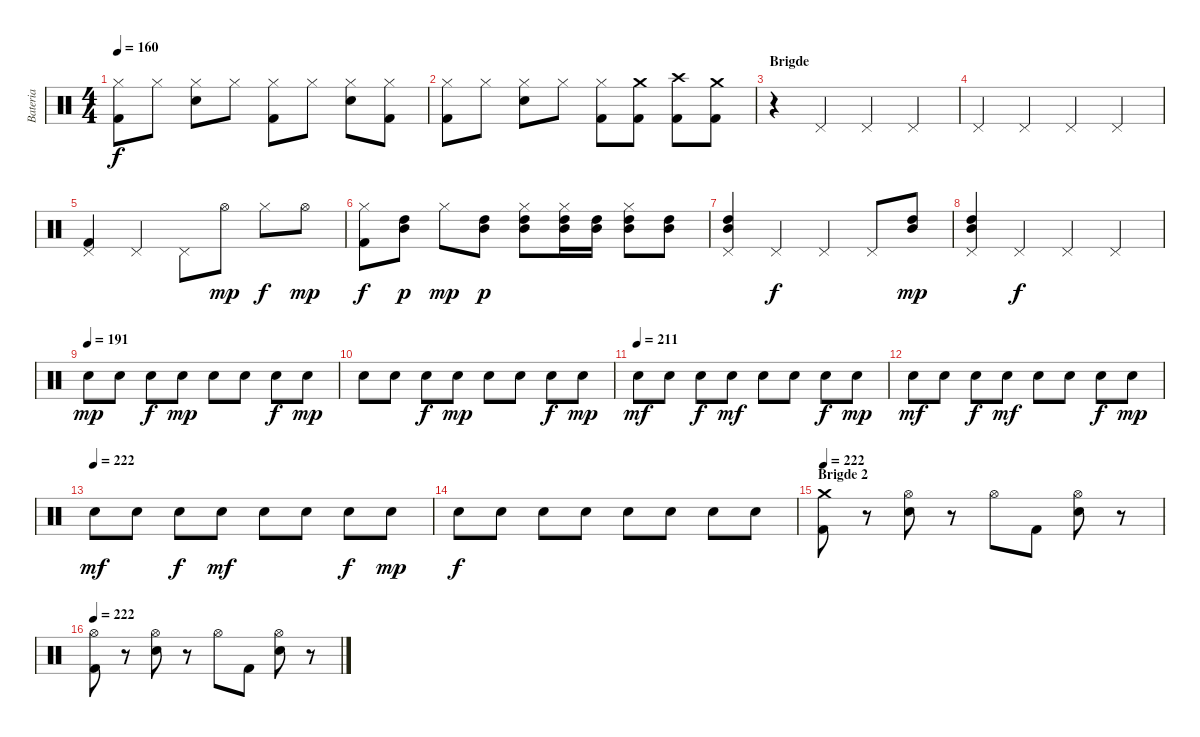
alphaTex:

\track ("Bateria" "Bateria") {instrument percussion}
\staff {score}
\articulation defaults
\ts (4 4)
\tempo 160
\clef neutral
\ks c
("Hi-Hat (closed)" "Kick (hit) 2").8{dy f} "Hi-Hat (closed)".8 ("Hi-Hat (closed)" "Electric Snare (hit)").8 "Hi-Hat (closed)".8 ("Hi-Hat (closed)" "Kick (hit) 2").8 "Hi-Hat (closed)".8 ("Hi-Hat (closed)" "Electric Snare (hit)").8 ("Hi-Hat (closed)" "Kick (hit) 2").8 |
("Hi-Hat (closed)" "Kick (hit) 2").8 "Hi-Hat (closed)".8 ("Hi-Hat (closed)" "Electric Snare (hit)").8 "Hi-Hat (closed)".8 ("Hi-Hat (closed)" "Kick (hit) 2").8 ("Crash medium (hit)" "Kick (hit) 2").8 ("Crash high (hit)" "Kick (hit) 2").8 ("Crash medium (hit)" "Kick (hit) 2").8 |
\section ("" "Brigde")
r.4 "Pedal Hi-Hat (hit)".4 "Pedal Hi-Hat (hit)".4 "Pedal Hi-Hat (hit)".4 |
"Pedal Hi-Hat (hit)".4 "Pedal Hi-Hat (hit)".4 "Pedal Hi-Hat (hit)".4 "Pedal Hi-Hat (hit)".4 |
("Kick (hit) 2" "Pedal Hi-Hat (hit)").4 "Pedal Hi-Hat (hit)".4 "Pedal Hi-Hat (hit)".8 "Hi-Hat (open)".8{dy mp} "Hi-Hat (closed)".8{dy f} "Hi-Hat (open)".8{dy mp} |
("Kick (hit) 2" "Hi-Hat (closed)").8{dy f} ("Mid Tom (hit)" "High Tom (hit)").8{dy p} "Hi-Hat (closed)".8{dy mp} ("Mid Tom (hit)" "High Tom (hit)").8{dy p} ("Hi-Hat (closed)" "Mid Tom (hit)" "High Tom (hit)").8 ("Hi-Hat (closed)" "Mid Tom (hit)" "High Tom (hit)").16 ("Mid Tom (hit)" "High Tom (hit)").16 ("Hi-Hat (closed)" "Mid Tom (hit)" "High Tom (hit)").8 ("Mid Tom (hit)" "High Tom (hit)").8 |
("Pedal Hi-Hat (hit)" "Mid Tom (hit)" "High Tom (hit)").4 "Pedal Hi-Hat (hit)".4{dy f} "Pedal Hi-Hat (hit)".4 "Pedal Hi-Hat (hit)".8 ("High Tom (hit)" "Mid Tom (hit)").8{dy mp} |
("High Tom (hit)" "Pedal Hi-Hat (hit)" "Mid Tom (hit)").4 "Pedal Hi-Hat (hit)".4{dy f} "Pedal Hi-Hat (hit)".4 "Pedal Hi-Hat (hit)".4 |
\tempo (191)
"Snare (hit) 2".8{dy mp} "Snare (hit) 2".8 "Snare (hit) 2".8{dy f} "Snare (hit) 2".8{dy mp} "Snare (hit) 2".8 "Snare (hit) 2".8 "Snare (hit) 2".8{dy f} "Snare (hit) 2".8{dy mp} |
"Snare (hit) 2".8 "Snare (hit) 2".8 "Snare (hit) 2".8{dy f} "Snare (hit) 2".8{dy mp} "Snare (hit) 2".8 "Snare (hit) 2".8 "Snare (hit) 2".8{dy f} "Snare (hit) 2".8{dy mp} |
\tempo (211)
"Snare (hit) 2".8{dy mf} "Snare (hit) 2".8 "Snare (hit) 2".8{dy f} "Snare (hit) 2".8{dy mf} "Snare (hit) 2".8 "Snare (hit) 2".8 "Snare (hit) 2".8{dy f} "Snare (hit) 2".8{dy mp} |
"Snare (hit) 2".8{dy mf} "Snare (hit) 2".8 "Snare (hit) 2".8{dy f} "Snare (hit) 2".8{dy mf} "Snare (hit) 2".8 "Snare (hit) 2".8 "Snare (hit) 2".8{dy f} "Snare (hit) 2".8{dy mp} |
\tempo (222)
"Snare (hit) 2".8{dy mf} "Snare (hit) 2".8 "Snare (hit) 2".8{dy f} "Snare (hit) 2".8{dy mf} "Snare (hit) 2".8 "Snare (hit) 2".8 "Snare (hit) 2".8{dy f} "Snare (hit) 2".8{dy mp} |
"Snare (hit) 2".8{dy f} "Snare (hit) 2".8 "Snare (hit) 2".8 "Snare (hit) 2".8 "Snare (hit) 2".8 "Snare (hit) 2".8 "Snare (hit) 2".8 "Snare (hit) 2".8 |
\section ("" "Brigde 2")
\tempo 222
("Crash medium (hit)" "Kick (hit) 2").8 r.8 ("Hi-Hat (open)" "Electric Snare (hit)").8 r.8 "Hi-Hat (open)".8 "Kick (hit) 2".8 ("Hi-Hat (open)" "Electric Snare (hit)").8 r.8 |
\tempo 222
("Hi-Hat (open)" "Kick (hit) 2").8 r.8 ("Hi-Hat (open)" "Electric Snare (hit)").8 r.8 "Hi-Hat (open)".8 "Kick (hit) 2".8 ("Hi-Hat (open)" "Electric Snare (hit)").8 r.8
